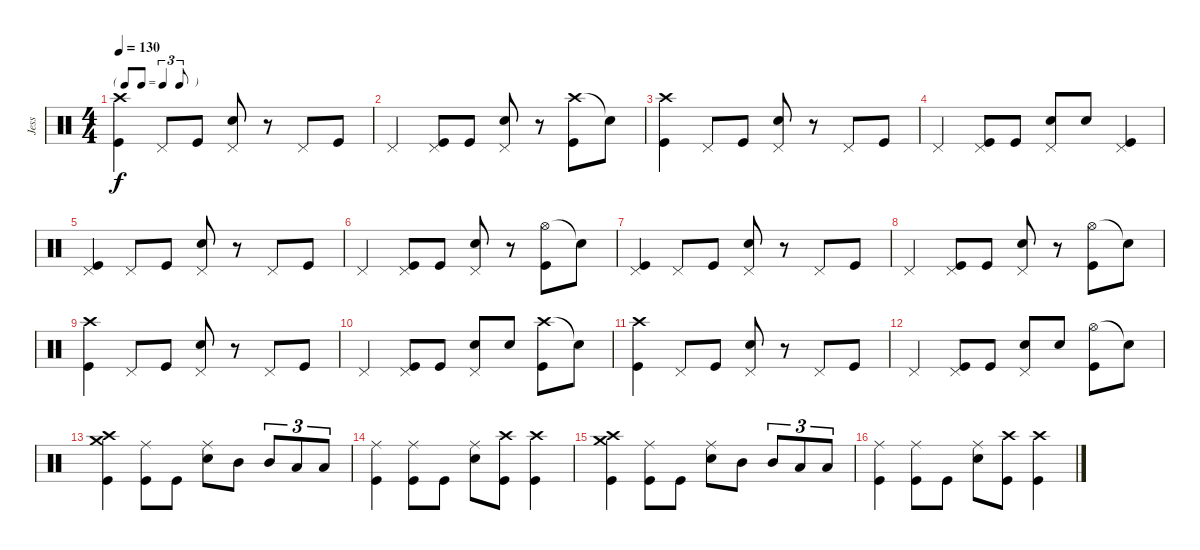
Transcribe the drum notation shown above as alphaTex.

\track ("Jess" "Jess") {instrument percussion}
\staff {score}
\articulation defaults
\ts (4 4)
\tf triplet8th
\tempo 130
\clef neutral
\ks c
("Crash high (hit)" "Kick (hit)").4{dy f} "Pedal Hi-Hat (hit)".8 "Kick (hit)".8 ("Pedal Hi-Hat (hit)" "Snare (hit) 2").8 r.8 "Pedal Hi-Hat (hit)".8 "Kick (hit)".8 |
"Pedal Hi-Hat (hit)".4 ("Pedal Hi-Hat (hit)" "Kick (hit)").8 "Kick (hit)".8 ("Pedal Hi-Hat (hit)" "Snare (hit) 2").8 r.8 ("Crash high (hit)" "Kick (hit)").8 "Snare (hit)"{t}.8 |
("Crash high (hit)" "Kick (hit)").4 "Pedal Hi-Hat (hit)".8 "Kick (hit)".8 ("Pedal Hi-Hat (hit)" "Snare (hit) 2").8 r.8 "Pedal Hi-Hat (hit)".8 "Kick (hit)".8 |
"Pedal Hi-Hat (hit)".4 ("Pedal Hi-Hat (hit)" "Kick (hit)").8 "Kick (hit)".8 ("Pedal Hi-Hat (hit)" "Snare (hit) 2").8 "Snare (hit) 2".8 ("Pedal Hi-Hat (hit)" "Kick (hit)").4 |
("Pedal Hi-Hat (hit)" "Kick (hit)").4 "Pedal Hi-Hat (hit)".8 "Kick (hit)".8 ("Pedal Hi-Hat (hit)" "Snare (hit) 2").8 r.8 "Pedal Hi-Hat (hit)".8 "Kick (hit)".8 |
"Pedal Hi-Hat (hit)".4 ("Pedal Hi-Hat (hit)" "Kick (hit)").8 "Kick (hit)".8 ("Pedal Hi-Hat (hit)" "Snare (hit) 2").8 r.8 ("Hi-Hat (open)" "Kick (hit)").8 "Snare (hit)"{t}.8 |
("Pedal Hi-Hat (hit)" "Kick (hit)").4 "Pedal Hi-Hat (hit)".8 "Kick (hit)".8 ("Pedal Hi-Hat (hit)" "Snare (hit) 2").8 r.8 "Pedal Hi-Hat (hit)".8 "Kick (hit)".8 |
"Pedal Hi-Hat (hit)".4 ("Pedal Hi-Hat (hit)" "Kick (hit)").8 "Kick (hit)".8 ("Pedal Hi-Hat (hit)" "Snare (hit) 2").8 r.8 ("Hi-Hat (open)" "Kick (hit)").8 "Snare (hit)"{t}.8 |
("Crash high (hit)" "Kick (hit)").4 "Pedal Hi-Hat (hit)".8 "Kick (hit)".8 ("Pedal Hi-Hat (hit)" "Snare (hit) 2").8 r.8 "Pedal Hi-Hat (hit)".8 "Kick (hit)".8 |
"Pedal Hi-Hat (hit)".4 ("Pedal Hi-Hat (hit)" "Kick (hit)").8 "Kick (hit)".8 ("Pedal Hi-Hat (hit)" "Snare (hit) 2").8 "Snare (hit) 2".8 ("Crash high (hit)" "Kick (hit)").8 "Snare (hit)"{t}.8 |
("Crash high (hit)" "Kick (hit)").4 "Pedal Hi-Hat (hit)".8 "Kick (hit)".8 ("Pedal Hi-Hat (hit)" "Snare (hit) 2").8 r.8 "Pedal Hi-Hat (hit)".8 "Kick (hit)".8 |
"Pedal Hi-Hat (hit)".4 ("Pedal Hi-Hat (hit)" "Kick (hit)").8 "Kick (hit)".8 ("Pedal Hi-Hat (hit)" "Snare (hit) 2").8 "Snare (hit) 2".8 ("Hi-Hat (open)" "Kick (hit)").8 "Snare (hit)"{t}.8 |
("Crash high (hit)" "Crash medium (hit)" "Kick (hit)").4 ("Ride (middle)" "Kick (hit)").8 "Kick (hit)".8 ("Ride (middle)" "Snare (hit) 2").8 "Mid Tom (hit)".8 "Mid Tom (hit)".8{tu (3 2)} "Low Tom (hit)".8{tu (3 2)} "Low Tom (hit)".8{tu (3 2)} |
("Ride (middle)" "Kick (hit)").4 ("Ride (middle)" "Kick (hit)").8 "Kick (hit)".8 ("Ride (middle)" "Snare (hit) 2").8 ("Crash high (hit)" "Kick (hit)").8 ("Crash high (hit)" "Kick (hit)").4 |
("Crash high (hit)" "Crash medium (hit)" "Kick (hit)").4 ("Ride (middle)" "Kick (hit)").8 "Kick (hit)".8 ("Ride (middle)" "Snare (hit) 2").8 "Mid Tom (hit)".8 "Mid Tom (hit)".8{tu (3 2)} "Low Tom (hit)".8{tu (3 2)} "Low Tom (hit)".8{tu (3 2)} |
("Ride (middle)" "Kick (hit)").4 ("Ride (middle)" "Kick (hit)").8 "Kick (hit)".8 ("Ride (middle)" "Snare (hit) 2").8 ("Crash high (hit)" "Kick (hit)").8 ("Crash high (hit)" "Kick (hit)").4
